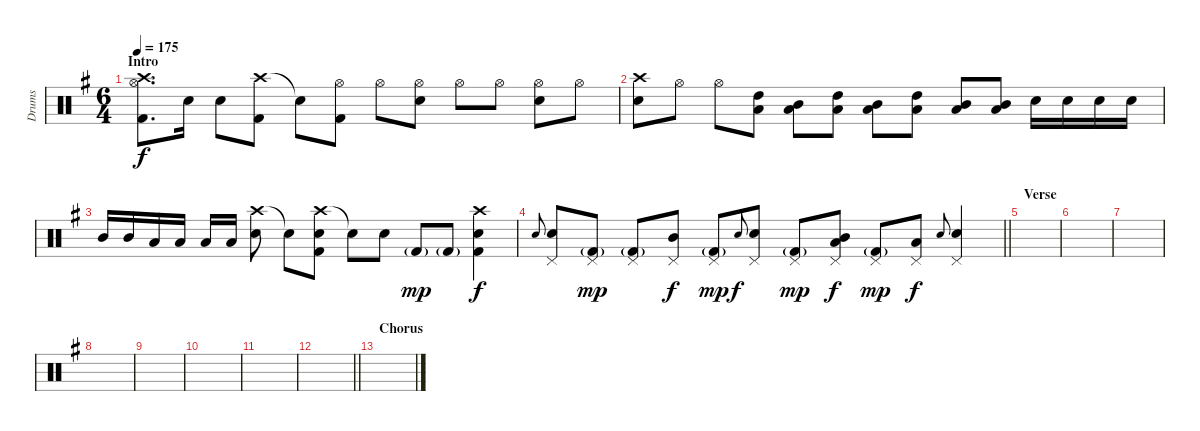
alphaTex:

\track ("Drums" "Drums") {instrument percussion}
\staff {score}
\articulation defaults
\ts (6 4)
\section ("" "Intro")
\tempo 175
\clef neutral
\ks eminor
("Crash high (hit)" "Hi-Hat (open)" "Kick (hit) 2").8{d dy f} "Electric Snare (hit)".16 "Electric Snare (hit)".8 ("Crash high (hit)" "Kick (hit) 2").8 "Snare (hit)"{t}.8 ("Hi-Hat (open)" "Kick (hit) 2").8 "Hi-Hat (open)".8 ("Hi-Hat (open)" "Electric Snare (hit)").8 "Hi-Hat (open)".8 "Hi-Hat (open)".8 ("Hi-Hat (open)" "Electric Snare (hit)").8 "Hi-Hat (open)".8 |
("Crash high (hit)" "Electric Snare (hit)").8 "Hi-Hat (open)".8 "Hi-Hat (open)".8 ("High Tom (hit)" "Low Tom (hit)").8 ("Mid Tom (hit)" "Low Tom (hit)").8 ("High Tom (hit)" "Low Tom (hit)").8 ("Mid Tom (hit)" "Low Tom (hit)").8 ("High Tom (hit)" "Low Tom (hit)").8 ("Mid Tom (hit)" "Low Tom (hit)").8 ("Mid Tom (hit)" "Low Tom (hit)").8 "Electric Snare (hit)".16 "Electric Snare (hit)".16 "Electric Snare (hit)".16 "Electric Snare (hit)".16 |
"Mid Tom (hit)".16 "Mid Tom (hit)".16 "Low Tom (hit)".16 "Low Tom (hit)".16 "Low Tom (hit)".16 "Low Tom (hit)".16{beam split} ("Crash high (hit)" "Electric Snare (hit)").8{beam split} "Snare (hit)"{t}.8 ("Crash high (hit)" "Electric Snare (hit)" "Kick (hit) 2").8 "Snare (hit)"{t}.8 "Electric Snare (hit)".8{beam split} "Kick (hit) 2"{g}.8{dy mp} "Kick (hit) 2"{g}.8 ("Crash high (hit)" "Electric Snare (hit)" "Kick (hit) 2").4{dy f} |
\barLineRight lightlight "Electric Snare (hit)".8{gr onbeat}
("Pedal Hi-Hat (hit)" "Electric Snare (hit)").8 ("Pedal Hi-Hat (hit)" "Kick (hit) 2"{g}).8{dy mp} ("Pedal Hi-Hat (hit)" "Kick (hit) 2"{g}).8 ("Pedal Hi-Hat (hit)" "Mid Tom (hit)").8{dy f} ("Pedal Hi-Hat (hit)" "Kick (hit) 2"{g}).8{dy mp} "Electric Snare (hit)".8{gr onbeat dy f} ("Pedal Hi-Hat (hit)" "Electric Snare (hit)").8 ("Pedal Hi-Hat (hit)" "Kick (hit) 2"{g}).8{dy mp} ("Pedal Hi-Hat (hit)" "Mid Tom (hit)" "Low Tom (hit)").8{dy f} ("Pedal Hi-Hat (hit)" "Kick (hit) 2"{g}).8{dy mp} ("Pedal Hi-Hat (hit)" "Low Tom (hit)").8{dy f} "Electric Snare (hit)".8{gr onbeat} ("Pedal Hi-Hat (hit)" "Electric Snare (hit)").4 |
\section ("" "Verse")
|
|
|
|
|
|
|
\barLineRight lightlight
|
\section ("" "Chorus")
